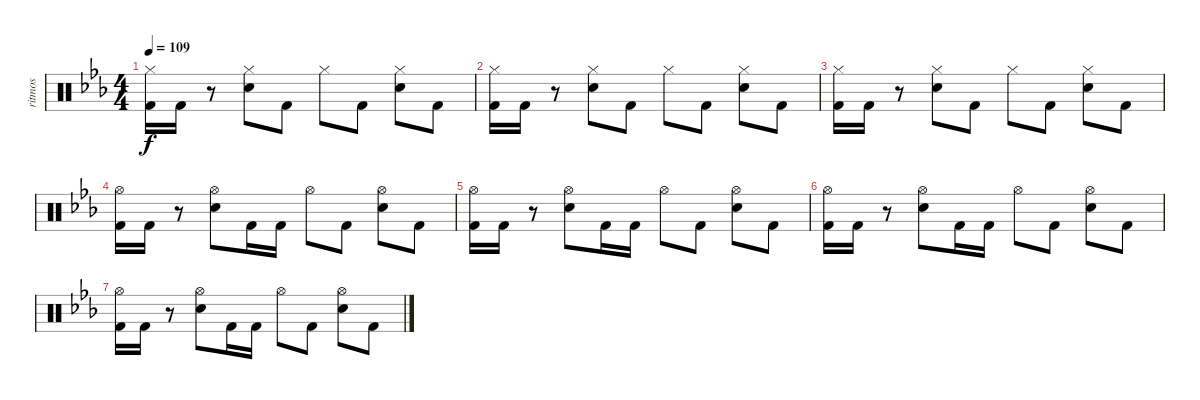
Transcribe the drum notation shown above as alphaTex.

\track ("ritmos" "ritmos") {instrument percussion}
\staff {score}
\articulation defaults
\ts (4 4)
\tempo 109
\clef neutral
\ks eb
("Hi-Hat (closed)" "Kick (hit) 2").16{dy f} "Kick (hit) 2".16 r.8 ("Hi-Hat (closed)" "Electric Snare (hit)").8 "Kick (hit) 2".8 "Hi-Hat (closed)".8 "Kick (hit) 2".8 ("Hi-Hat (closed)" "Electric Snare (hit)").8 "Kick (hit) 2".8 |
("Hi-Hat (closed)" "Kick (hit) 2").16 "Kick (hit) 2".16 r.8 ("Hi-Hat (closed)" "Electric Snare (hit)").8 "Kick (hit) 2".8 "Hi-Hat (closed)".8 "Kick (hit) 2".8 ("Hi-Hat (closed)" "Electric Snare (hit)").8 "Kick (hit) 2".8 |
("Hi-Hat (closed)" "Kick (hit) 2").16 "Kick (hit) 2".16 r.8 ("Hi-Hat (closed)" "Electric Snare (hit)").8 "Kick (hit) 2".8 "Hi-Hat (closed)".8 "Kick (hit) 2".8 ("Hi-Hat (closed)" "Electric Snare (hit)").8 "Kick (hit) 2".8 |
("Hi-Hat (open)" "Kick (hit) 2").16 "Kick (hit) 2".16 r.8 ("Hi-Hat (open)" "Electric Snare (hit)").8 "Kick (hit) 2".16 "Kick (hit) 2".16 "Hi-Hat (open)".8 "Kick (hit) 2".8 ("Hi-Hat (open)" "Electric Snare (hit)").8 "Kick (hit) 2".8 |
("Hi-Hat (open)" "Kick (hit) 2").16 "Kick (hit) 2".16 r.8 ("Hi-Hat (open)" "Electric Snare (hit)").8 "Kick (hit) 2".16 "Kick (hit) 2".16 "Hi-Hat (open)".8 "Kick (hit) 2".8 ("Hi-Hat (open)" "Electric Snare (hit)").8 "Kick (hit) 2".8 |
("Hi-Hat (open)" "Kick (hit) 2").16 "Kick (hit) 2".16 r.8 ("Hi-Hat (open)" "Electric Snare (hit)").8 "Kick (hit) 2".16 "Kick (hit) 2".16 "Hi-Hat (open)".8 "Kick (hit) 2".8 ("Hi-Hat (open)" "Electric Snare (hit)").8 "Kick (hit) 2".8 |
("Hi-Hat (open)" "Kick (hit) 2").16 "Kick (hit) 2".16 r.8 ("Hi-Hat (open)" "Electric Snare (hit)").8 "Kick (hit) 2".16 "Kick (hit) 2".16 "Hi-Hat (open)".8 "Kick (hit) 2".8 ("Hi-Hat (open)" "Electric Snare (hit)").8 "Kick (hit) 2".8
